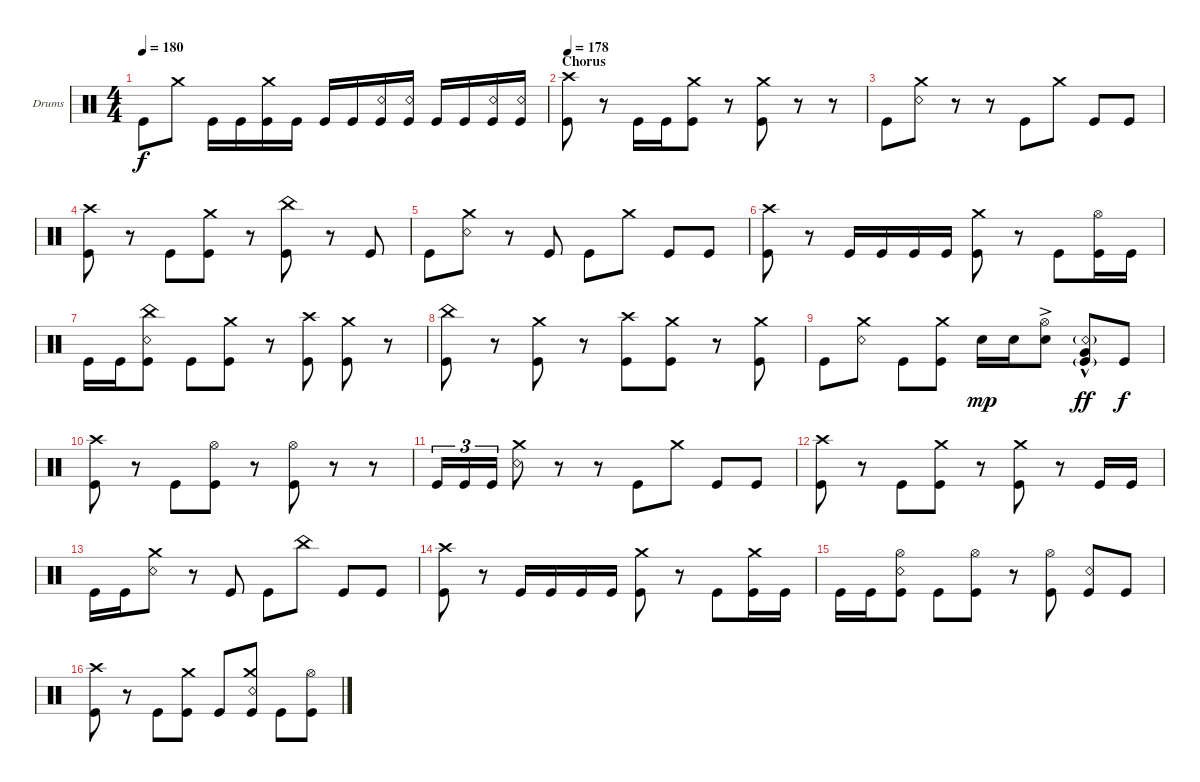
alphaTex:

\bracketExtendMode groupsimilarinstruments
\firstSystemTrackNameOrientation horizontal
\otherSystemsTrackNameOrientation horizontal
\track ("Drumkit" "Drums") {instrument percussion}
\staff {score}
\articulation defaults
\ts (4 4)
\tempo 180
\clef neutral
\ks c "Kick (hit)".8{dy f} "Crash medium (hit)".8 "Kick (hit)".16 "Kick (hit)".16
("Kick (hit)" "Crash medium (hit)").16 "Kick (hit)".16 "Kick (hit)".16 "Kick (hit)".16 ("Snare (rim shot)" "Kick (hit)").16 ("Snare (rim shot)" "Kick (hit)").16 "Kick (hit)".16 "Kick (hit)".16 ("Kick (hit)" "Snare (rim shot)").16 ("Kick (hit)" "Snare (rim shot)").16 |
\section ("" "Chorus")
\tempo 178
("Kick (hit)" "Crash high (hit)").8 r.8 "Kick (hit)".16 "Kick (hit)".16 ("Kick (hit)" "Crash medium (hit)").8 r.8 ("Kick (hit)" "Crash medium (hit)").8 r.8 r.8 |
"Kick (hit)".8 ("Snare (rim shot)" "Crash medium (hit)").8 r.8 r.8 "Kick (hit)".8 "Crash medium (hit)".8 "Kick (hit)".8 "Kick (hit)".8 |
("Kick (hit)" "Crash high (hit)").8 r.8 "Kick (hit)".8 ("Kick (hit)" "Crash medium (hit)").8 r.8 ("Kick (hit)" "China (hit)").8 r.8 "Kick (hit)".8 |
"Kick (hit)".8 ("Snare (rim shot)" "Crash medium (hit)").8 r.8 "Kick (hit)".8 "Kick (hit)".8 "Crash medium (hit)".8 "Kick (hit)".8 "Kick (hit)".8 |
("Kick (hit)" "Crash high (hit)").8 r.8 "Kick (hit)".16 "Kick (hit)".16 "Kick (hit)".16 "Kick (hit)".16 ("Kick (hit)" "Crash medium (hit)").8 r.8 "Kick (hit)".8 ("Kick (hit)" "Hi-Hat (open)").16 "Kick (hit)".16 |
"Kick (hit)".16 "Kick (hit)".16 ("Kick (hit)" "Snare (rim shot)" "China (hit)").8 "Kick (hit)".8 ("Kick (hit)" "Crash medium (hit)").8 r.8 ("Kick (hit)" "Crash high (hit)").8 ("Kick (hit)" "Crash medium (hit)").8 r.8 |
("Kick (hit)" "China (hit)").8 r.8 ("Kick (hit)" "Crash medium (hit)").8 r.8 ("Kick (hit)" "Crash high (hit)").8 ("Kick (hit)" "Crash medium (hit)").8 r.8 ("Kick (hit)" "Crash medium (hit)").8 |
"Kick (hit)".8 ("Snare (rim shot)" "Crash medium (hit)").8 "Kick (hit)".8 ("Kick (hit)" "Crash medium (hit)").8 "Snare (hit) 2".16{dy mp} "Snare (hit) 2".16 ("Snare (hit) 2" "Hi-Hat (open)"{ac}).8 ("Kick (hit)"{g} "Snare (rim shot)"{g} "Very Low Tom (hit)"{hac}).8{dy ff} "Kick (hit)".8{dy f} |
("Kick (hit)" "Crash high (hit)").8 r.8 "Kick (hit)".8 ("Kick (hit)" "Hi-Hat (open)").8 r.8 ("Kick (hit)" "Hi-Hat (open)").8 r.8 r.8 |
"Kick (hit)".16{tu (3 2)} "Kick (hit)".16{tu (3 2)} "Kick (hit)".16{tu (3 2)} ("Snare (rim shot)" "Crash medium (hit)").8 r.8 r.8 "Kick (hit)".8 "Crash medium (hit)".8 "Kick (hit)".8 "Kick (hit)".8 |
("Kick (hit)" "Crash high (hit)").8 r.8 "Kick (hit)".8 ("Kick (hit)" "Crash medium (hit)").8 r.8 ("Kick (hit)" "Crash medium (hit)").8 r.8 "Kick (hit)".16 "Kick (hit)".16 |
"Kick (hit)".16 "Kick (hit)".16 ("Snare (rim shot)" "Crash medium (hit)").8 r.8 "Kick (hit)".8 "Kick (hit)".8 "China (hit)".8 "Kick (hit)".8 "Kick (hit)".8 |
("Kick (hit)" "Crash high (hit)").8 r.8 "Kick (hit)".16 "Kick (hit)".16 "Kick (hit)".16 "Kick (hit)".16 ("Kick (hit)" "Crash medium (hit)").8 r.8 "Kick (hit)".8 ("Kick (hit)" "Crash medium (hit)").16 "Kick (hit)".16 |
"Kick (hit)".16 "Kick (hit)".16 ("Kick (hit)" "Snare (rim shot)" "Hi-Hat (open)").8 "Kick (hit)".8 ("Kick (hit)" "Hi-Hat (open)").8 r.8 ("Kick (hit)" "Hi-Hat (open)").8 ("Kick (hit)" "Snare (rim shot)").8 "Kick (hit)".8 |
("Kick (hit)" "Crash high (hit)").8 r.8 "Kick (hit)".8 ("Kick (hit)" "Crash medium (hit)").8 "Kick (hit)".8 ("Kick (hit)" "Snare (rim shot)" "Crash medium (hit)").8 "Kick (hit)".8 ("Kick (hit)" "Hi-Hat (open)").8
